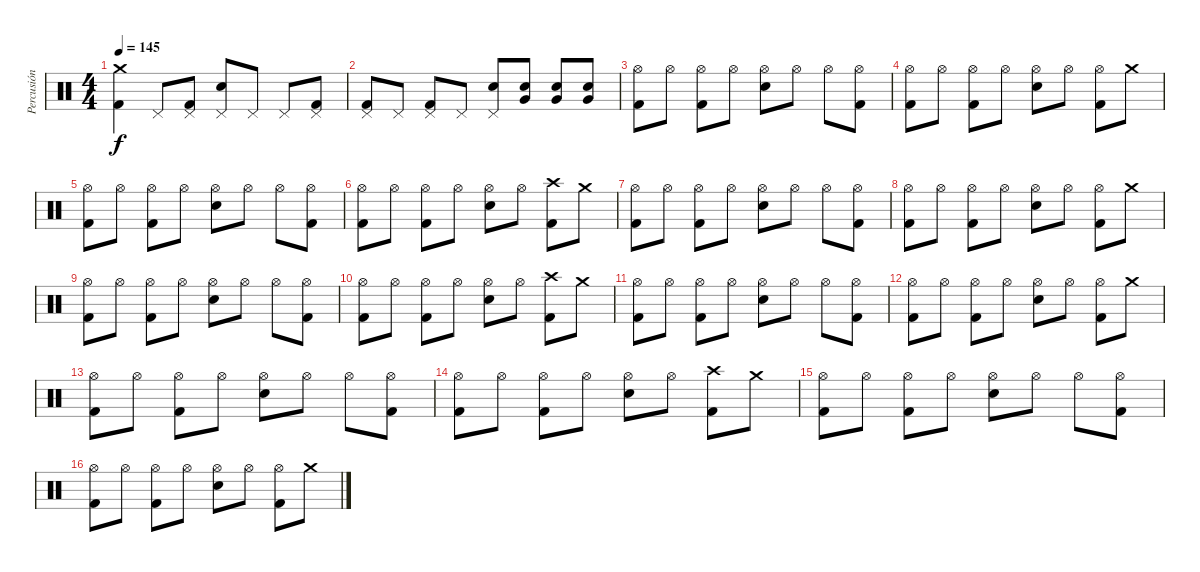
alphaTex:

\track ("Percusión" "Percusión") {instrument percussion}
\staff {score}
\articulation defaults
\ts (4 4)
\tempo 145
\clef neutral
\ks c
("Crash medium (hit)" "Kick (hit) 2").4{dy f} "Pedal Hi-Hat (hit)".8 ("Pedal Hi-Hat (hit)" "Kick (hit) 2").8 ("Pedal Hi-Hat (hit)" "Snare (hit) 2").8 "Pedal Hi-Hat (hit)".8 "Pedal Hi-Hat (hit)".8 ("Pedal Hi-Hat (hit)" "Kick (hit) 2").8 |
("Pedal Hi-Hat (hit)" "Kick (hit) 2").8 "Pedal Hi-Hat (hit)".8 ("Pedal Hi-Hat (hit)" "Kick (hit) 2").8 "Pedal Hi-Hat (hit)".8 ("Pedal Hi-Hat (hit)" "Snare (hit) 2").8 ("Very Low Tom (hit)" "Snare (hit) 2").8 ("Very Low Tom (hit)" "Snare (hit) 2").8 ("Very Low Tom (hit)" "Snare (hit) 2").8 |
("Hi-Hat (open)" "Kick (hit) 2").8 "Hi-Hat (open)".8 ("Hi-Hat (open)" "Kick (hit) 2").8 "Hi-Hat (open)".8 ("Hi-Hat (open)" "Snare (hit) 2").8 "Hi-Hat (open)".8 "Hi-Hat (open)".8 ("Hi-Hat (open)" "Kick (hit) 2").8 |
("Hi-Hat (open)" "Kick (hit) 2").8 "Hi-Hat (open)".8 ("Hi-Hat (open)" "Kick (hit) 2").8 "Hi-Hat (open)".8 ("Hi-Hat (open)" "Snare (hit) 2").8 "Hi-Hat (open)".8 ("Hi-Hat (open)" "Kick (hit) 2").8 "Crash medium (hit)".8 |
("Hi-Hat (open)" "Kick (hit) 2").8 "Hi-Hat (open)".8 ("Hi-Hat (open)" "Kick (hit) 2").8 "Hi-Hat (open)".8 ("Hi-Hat (open)" "Snare (hit) 2").8 "Hi-Hat (open)".8 "Hi-Hat (open)".8 ("Hi-Hat (open)" "Kick (hit) 2").8 |
("Hi-Hat (open)" "Kick (hit) 2").8 "Hi-Hat (open)".8 ("Hi-Hat (open)" "Kick (hit) 2").8 "Hi-Hat (open)".8 ("Hi-Hat (open)" "Snare (hit) 2").8 "Hi-Hat (open)".8 ("Crash high (hit)" "Kick (hit) 2").8 "Crash medium (hit)".8 |
("Hi-Hat (open)" "Kick (hit) 2").8 "Hi-Hat (open)".8 ("Hi-Hat (open)" "Kick (hit) 2").8 "Hi-Hat (open)".8 ("Hi-Hat (open)" "Snare (hit) 2").8 "Hi-Hat (open)".8 "Hi-Hat (open)".8 ("Hi-Hat (open)" "Kick (hit) 2").8 |
("Hi-Hat (open)" "Kick (hit) 2").8 "Hi-Hat (open)".8 ("Hi-Hat (open)" "Kick (hit) 2").8 "Hi-Hat (open)".8 ("Hi-Hat (open)" "Snare (hit) 2").8 "Hi-Hat (open)".8 ("Hi-Hat (open)" "Kick (hit) 2").8 "Crash medium (hit)".8 |
("Hi-Hat (open)" "Kick (hit) 2").8 "Hi-Hat (open)".8 ("Hi-Hat (open)" "Kick (hit) 2").8 "Hi-Hat (open)".8 ("Hi-Hat (open)" "Snare (hit) 2").8 "Hi-Hat (open)".8 "Hi-Hat (open)".8 ("Hi-Hat (open)" "Kick (hit) 2").8 |
("Hi-Hat (open)" "Kick (hit) 2").8 "Hi-Hat (open)".8 ("Hi-Hat (open)" "Kick (hit) 2").8 "Hi-Hat (open)".8 ("Hi-Hat (open)" "Snare (hit) 2").8 "Hi-Hat (open)".8 ("Crash high (hit)" "Kick (hit) 2").8 "Crash medium (hit)".8 |
("Hi-Hat (open)" "Kick (hit) 2").8 "Hi-Hat (open)".8 ("Hi-Hat (open)" "Kick (hit) 2").8 "Hi-Hat (open)".8 ("Hi-Hat (open)" "Snare (hit) 2").8 "Hi-Hat (open)".8 "Hi-Hat (open)".8 ("Hi-Hat (open)" "Kick (hit) 2").8 |
("Hi-Hat (open)" "Kick (hit) 2").8 "Hi-Hat (open)".8 ("Hi-Hat (open)" "Kick (hit) 2").8 "Hi-Hat (open)".8 ("Hi-Hat (open)" "Snare (hit) 2").8 "Hi-Hat (open)".8 ("Hi-Hat (open)" "Kick (hit) 2").8 "Crash medium (hit)".8 |
("Hi-Hat (open)" "Kick (hit) 2").8 "Hi-Hat (open)".8 ("Hi-Hat (open)" "Kick (hit) 2").8 "Hi-Hat (open)".8 ("Hi-Hat (open)" "Snare (hit) 2").8 "Hi-Hat (open)".8 "Hi-Hat (open)".8 ("Hi-Hat (open)" "Kick (hit) 2").8 |
("Hi-Hat (open)" "Kick (hit) 2").8 "Hi-Hat (open)".8 ("Hi-Hat (open)" "Kick (hit) 2").8 "Hi-Hat (open)".8 ("Hi-Hat (open)" "Snare (hit) 2").8 "Hi-Hat (open)".8 ("Crash high (hit)" "Kick (hit) 2").8 "Crash medium (hit)".8 |
("Hi-Hat (open)" "Kick (hit) 2").8 "Hi-Hat (open)".8 ("Hi-Hat (open)" "Kick (hit) 2").8 "Hi-Hat (open)".8 ("Hi-Hat (open)" "Snare (hit) 2").8 "Hi-Hat (open)".8 "Hi-Hat (open)".8 ("Hi-Hat (open)" "Kick (hit) 2").8 |
("Hi-Hat (open)" "Kick (hit) 2").8 "Hi-Hat (open)".8 ("Hi-Hat (open)" "Kick (hit) 2").8 "Hi-Hat (open)".8 ("Hi-Hat (open)" "Snare (hit) 2").8 "Hi-Hat (open)".8 ("Hi-Hat (open)" "Kick (hit) 2").8 "Crash medium (hit)".8
